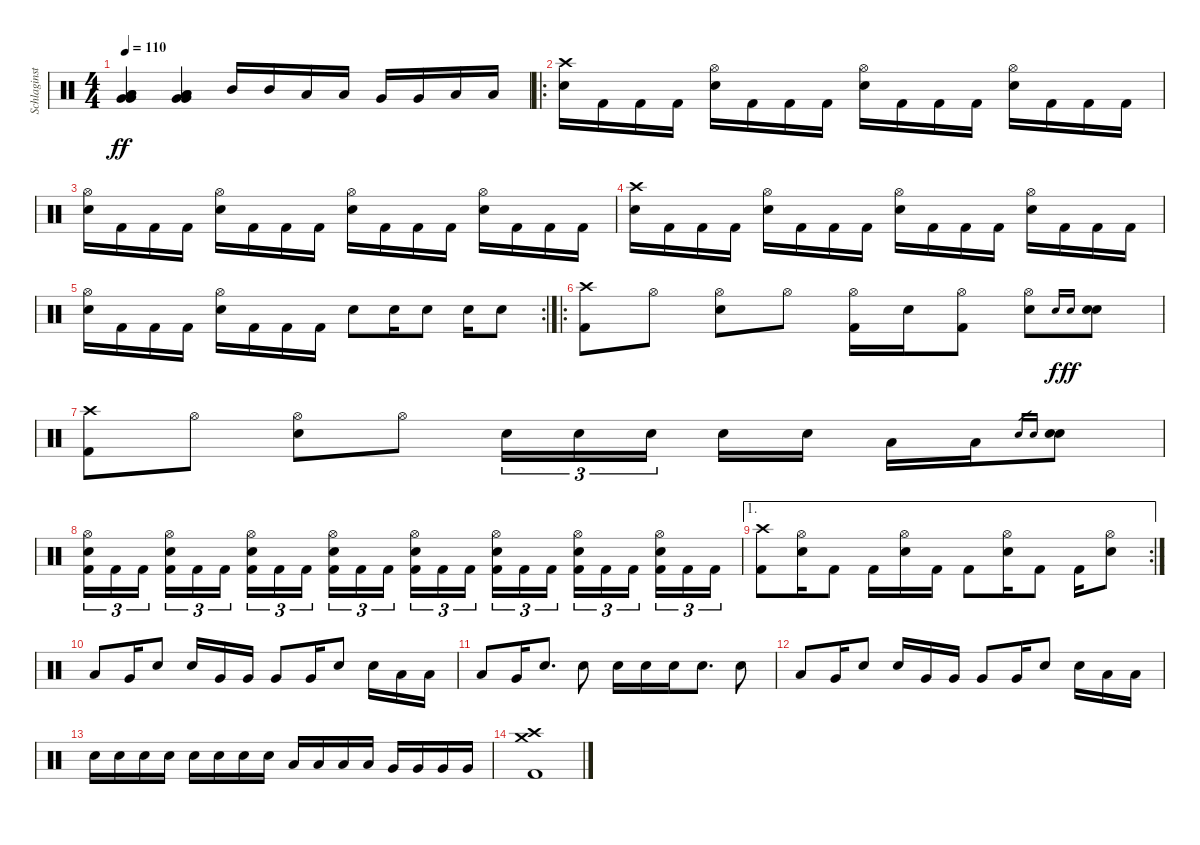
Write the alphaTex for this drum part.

\track ("Schlaginstrumente - Auswahl" "Schlaginst") {instrument percussion}
\staff {score}
\articulation defaults
\ts (4 4)
\tempo 110
\clef neutral
\ks c
("Low Floor Tom (hit)" "Low Floor Tom (hit)" "Very Low Tom (hit)" "Very Low Tom (hit)").4{dy ff} ("Low Floor Tom (hit)" "Low Floor Tom (hit)" "Very Low Tom (hit)" "Very Low Tom (hit)").4 "Mid Tom (hit)".16 "Mid Tom (hit)".16 "Low Tom (hit)".16 "Low Tom (hit)".16 "Very Low Tom (hit)".16 "Very Low Tom (hit)".16 "Low Floor Tom (hit)".16 "Low Floor Tom (hit)".16 |
\ro
("Crash high (hit)" "Electric Snare (hit)").16 "Kick (hit) 2".16 "Kick (hit) 2".16 "Kick (hit) 2".16 ("Hi-Hat (open)" "Electric Snare (hit)").16 "Kick (hit) 2".16 "Kick (hit) 2".16 "Kick (hit) 2".16 ("Hi-Hat (open)" "Electric Snare (hit)").16 "Kick (hit) 2".16 "Kick (hit) 2".16 "Kick (hit) 2".16 ("Hi-Hat (open)" "Electric Snare (hit)").16 "Kick (hit) 2".16 "Kick (hit) 2".16 "Kick (hit) 2".16 |
("Hi-Hat (open)" "Electric Snare (hit)").16 "Kick (hit) 2".16 "Kick (hit) 2".16 "Kick (hit) 2".16 ("Hi-Hat (open)" "Electric Snare (hit)").16 "Kick (hit) 2".16 "Kick (hit) 2".16 "Kick (hit) 2".16 ("Hi-Hat (open)" "Electric Snare (hit)").16 "Kick (hit) 2".16 "Kick (hit) 2".16 "Kick (hit) 2".16 ("Hi-Hat (open)" "Electric Snare (hit)").16 "Kick (hit) 2".16 "Kick (hit) 2".16 "Kick (hit) 2".16 |
("Crash high (hit)" "Electric Snare (hit)").16 "Kick (hit) 2".16 "Kick (hit) 2".16 "Kick (hit) 2".16 ("Hi-Hat (open)" "Electric Snare (hit)").16 "Kick (hit) 2".16 "Kick (hit) 2".16 "Kick (hit) 2".16 ("Hi-Hat (open)" "Electric Snare (hit)").16 "Kick (hit) 2".16 "Kick (hit) 2".16 "Kick (hit) 2".16 ("Hi-Hat (open)" "Electric Snare (hit)").16 "Kick (hit) 2".16 "Kick (hit) 2".16 "Kick (hit) 2".16 |
\rc 2
("Hi-Hat (open)" "Electric Snare (hit)").16 "Kick (hit) 2".16 "Kick (hit) 2".16 "Kick (hit) 2".16 ("Hi-Hat (open)" "Electric Snare (hit)").16 "Kick (hit) 2".16 "Kick (hit) 2".16 "Kick (hit) 2".16 "Electric Snare (hit)".8 "Electric Snare (hit)".16 "Electric Snare (hit)".8 "Electric Snare (hit)".16 "Electric Snare (hit)".8 |
\ro
("Crash high (hit)" "Kick (hit) 2").8 "Hi-Hat (open)".8 ("Hi-Hat (open)" "Electric Snare (hit)").8 "Hi-Hat (open)".8 ("Hi-Hat (open)" "Kick (hit) 2").16 "Electric Snare (hit)".16 ("Hi-Hat (open)" "Kick (hit) 2").8 ("Hi-Hat (open)" "Electric Snare (hit)").8 "Electric Snare (hit)".16{gr onbeat dy f} "Electric Snare (hit)".16{gr onbeat dy ff} ("Electric Snare (hit)" "Electric Snare (hit)").8 |
("Crash high (hit)" "Kick (hit) 2").8 "Hi-Hat (open)".8 ("Hi-Hat (open)" "Electric Snare (hit)").8 "Hi-Hat (open)".8 "Electric Snare (hit)".16{tu (3 2)} "Electric Snare (hit)".16{tu (3 2)} "Electric Snare (hit)".16{tu (3 2) beam splitsecondary} "Electric Snare (hit)".16 "Electric Snare (hit)".16 "Low Tom (hit)".16 "Low Tom (hit)".16 "Electric Snare (hit)".16{gr} "Electric Snare (hit)".16{gr} ("Electric Snare (hit)" "Electric Snare (hit)").8 |
("Hi-Hat (open)" "Electric Snare (hit)" "Kick (hit) 2").16{tu (3 2)} "Kick (hit) 2".16{tu (3 2)} "Kick (hit) 2".16{tu (3 2) beam splitsecondary} ("Hi-Hat (open)" "Electric Snare (hit)" "Kick (hit) 2").16{tu (3 2)} "Kick (hit) 2".16{tu (3 2)} "Kick (hit) 2".16{tu (3 2)} ("Hi-Hat (open)" "Electric Snare (hit)" "Kick (hit) 2").16{tu (3 2)} "Kick (hit) 2".16{tu (3 2)} "Kick (hit) 2".16{tu (3 2) beam splitsecondary} ("Hi-Hat (open)" "Electric Snare (hit)" "Kick (hit) 2").16{tu (3 2)} "Kick (hit) 2".16{tu (3 2)} "Kick (hit) 2".16{tu (3 2)} ("Hi-Hat (open)" "Electric Snare (hit)" "Kick (hit) 2").16{tu (3 2)} "Kick (hit) 2".16{tu (3 2)} "Kick (hit) 2".16{tu (3 2) beam splitsecondary} ("Hi-Hat (open)" "Electric Snare (hit)" "Kick (hit) 2").16{tu (3 2)} "Kick (hit) 2".16{tu (3 2)} "Kick (hit) 2".16{tu (3 2)} ("Hi-Hat (open)" "Electric Snare (hit)" "Kick (hit) 2").16{tu (3 2)} "Kick (hit) 2".16{tu (3 2)} "Kick (hit) 2".16{tu (3 2) beam splitsecondary} ("Hi-Hat (open)" "Electric Snare (hit)" "Kick (hit) 2").16{tu (3 2)} "Kick (hit) 2".16{tu (3 2)} "Kick (hit) 2".16{tu (3 2)} |
\ae 1
\rc 2
("Crash high (hit)" "Kick (hit) 2").8 ("Hi-Hat (open)" "Electric Snare (hit)").16 "Kick (hit) 2".8 "Kick (hit) 2".16 ("Hi-Hat (open)" "Electric Snare (hit)").16 "Kick (hit) 2".16 "Kick (hit) 2".8 ("Hi-Hat (open)" "Electric Snare (hit)").16 "Kick (hit) 2".8 "Kick (hit) 2".16 ("Hi-Hat (open)" "Electric Snare (hit)").8 |
"Low Tom (hit)".8 "Very Low Tom (hit)".16 "Electric Snare (hit)".8 "Electric Snare (hit)".16 "Very Low Tom (hit)".16 "Very Low Tom (hit)".16 "Very Low Tom (hit)".8 "Very Low Tom (hit)".16 "Electric Snare (hit)".8 "Electric Snare (hit)".16 "Low Floor Tom (hit)".16 "Low Floor Tom (hit)".16 |
"Low Floor Tom (hit)".8 "Very Low Tom (hit)".16 "Electric Snare (hit)".8{d} "Electric Snare (hit)".8 "Electric Snare (hit)".16 "Electric Snare (hit)".16 "Electric Snare (hit)".16 "Electric Snare (hit)".8{d} "Electric Snare (hit)".8 |
"Low Tom (hit)".8 "Very Low Tom (hit)".16 "Electric Snare (hit)".8 "Electric Snare (hit)".16 "Very Low Tom (hit)".16 "Very Low Tom (hit)".16 "Very Low Tom (hit)".8 "Very Low Tom (hit)".16 "Electric Snare (hit)".8 "Electric Snare (hit)".16 "Low Floor Tom (hit)".16 "Low Floor Tom (hit)".16 |
"Electric Snare (hit)".16 "Electric Snare (hit)".16 "Electric Snare (hit)".16 "Electric Snare (hit)".16 "Electric Snare (hit)".16 "Electric Snare (hit)".16 "Electric Snare (hit)".16 "Electric Snare (hit)".16 "Low Tom (hit)".16 "Low Tom (hit)".16 "Low Tom (hit)".16 "Low Tom (hit)".16 "Very Low Tom (hit)".16 "Very Low Tom (hit)".16 "Very Low Tom (hit)".16 "Very Low Tom (hit)".16 |
("Crash high (hit)" "Crash medium (hit)" "Kick (hit) 2").1
